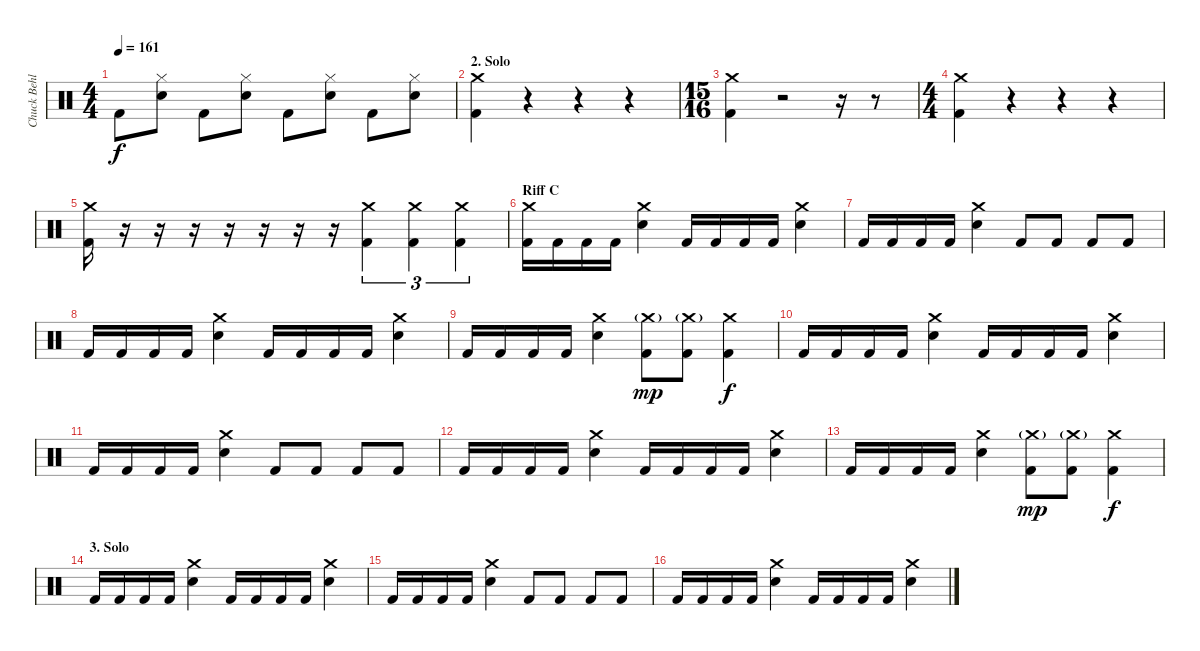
\track ("Chuck Behler" "Chuck Behl") {instrument percussion}
\staff {score}
\articulation defaults
\ts (4 4)
\tempo 161
\clef neutral
\ks c "Kick (hit) 2".8{dy f}
("Hi-Hat (closed)" "Snare (hit) 2").8 "Kick (hit) 2".8 ("Hi-Hat (closed)" "Snare (hit) 2").8 "Kick (hit) 2".8 ("Hi-Hat (closed)" "Snare (hit) 2").8 "Kick (hit) 2".8 ("Hi-Hat (closed)" "Snare (hit) 2").8 |
\section ("" "2. Solo")
("Crash medium (hit)" "Kick (hit) 2").4{volume 0} r.4 r.4 r.4{volume 16} |
\ts (15 16)
("Crash medium (hit)" "Kick (hit) 2").4{volume 0} r.2 r.16 r.8{volume 16} |
\ts (4 4)
("Crash medium (hit)" "Kick (hit) 2").4{volume 0} r.4 r.4 r.4{volume 16} |
("Crash medium (hit)" "Kick (hit) 2").16{volume 0} r.16 r.16 r.16 r.16 r.16 r.16 r.16 ("Crash medium (hit)" "Kick (hit) 2").4{tu (3 2) volume 16} ("Crash medium (hit)" "Kick (hit) 2").4{tu (3 2)} ("Crash medium (hit)" "Kick (hit) 2").4{tu (3 2)} |
\section ("" "Riff C")
("Crash medium (hit)" "Kick (hit) 2").16 "Kick (hit) 2".16 "Kick (hit) 2".16 "Kick (hit) 2".16 ("Crash medium (hit)" "Snare (hit) 2").4 "Kick (hit) 2".16 "Kick (hit) 2".16 "Kick (hit) 2".16 "Kick (hit) 2".16 ("Crash medium (hit)" "Snare (hit) 2").4 |
"Kick (hit) 2".16 "Kick (hit) 2".16 "Kick (hit) 2".16 "Kick (hit) 2".16 ("Crash medium (hit)" "Snare (hit) 2").4 "Kick (hit) 2".8 "Kick (hit) 2".8 "Kick (hit) 2".8 "Kick (hit) 2".8 |
"Kick (hit) 2".16 "Kick (hit) 2".16 "Kick (hit) 2".16 "Kick (hit) 2".16 ("Crash medium (hit)" "Snare (hit) 2").4 "Kick (hit) 2".16 "Kick (hit) 2".16 "Kick (hit) 2".16 "Kick (hit) 2".16 ("Crash medium (hit)" "Snare (hit) 2").4 |
"Kick (hit) 2".16 "Kick (hit) 2".16 "Kick (hit) 2".16 "Kick (hit) 2".16 ("Crash medium (hit)" "Snare (hit) 2").4 ("Crash medium (hit)"{g} "Kick (hit) 2").8{dy mp} ("Crash medium (hit)"{g} "Kick (hit) 2").8 ("Crash medium (hit)" "Kick (hit) 2").4{dy f} |
"Kick (hit) 2".16 "Kick (hit) 2".16 "Kick (hit) 2".16 "Kick (hit) 2".16 ("Crash medium (hit)" "Snare (hit) 2").4 "Kick (hit) 2".16 "Kick (hit) 2".16 "Kick (hit) 2".16 "Kick (hit) 2".16 ("Crash medium (hit)" "Snare (hit) 2").4 |
"Kick (hit) 2".16 "Kick (hit) 2".16 "Kick (hit) 2".16 "Kick (hit) 2".16 ("Crash medium (hit)" "Snare (hit) 2").4 "Kick (hit) 2".8 "Kick (hit) 2".8 "Kick (hit) 2".8 "Kick (hit) 2".8 |
"Kick (hit) 2".16 "Kick (hit) 2".16 "Kick (hit) 2".16 "Kick (hit) 2".16 ("Crash medium (hit)" "Snare (hit) 2").4 "Kick (hit) 2".16 "Kick (hit) 2".16 "Kick (hit) 2".16 "Kick (hit) 2".16 ("Crash medium (hit)" "Snare (hit) 2").4 |
"Kick (hit) 2".16 "Kick (hit) 2".16 "Kick (hit) 2".16 "Kick (hit) 2".16 ("Crash medium (hit)" "Snare (hit) 2").4 ("Crash medium (hit)"{g} "Kick (hit) 2").8{dy mp} ("Crash medium (hit)"{g} "Kick (hit) 2").8 ("Crash medium (hit)" "Kick (hit) 2").4{dy f} |
\section ("" "3. Solo")
"Kick (hit) 2".16 "Kick (hit) 2".16 "Kick (hit) 2".16 "Kick (hit) 2".16 ("Crash medium (hit)" "Snare (hit) 2").4 "Kick (hit) 2".16 "Kick (hit) 2".16 "Kick (hit) 2".16 "Kick (hit) 2".16 ("Crash medium (hit)" "Snare (hit) 2").4 |
"Kick (hit) 2".16 "Kick (hit) 2".16 "Kick (hit) 2".16 "Kick (hit) 2".16 ("Crash medium (hit)" "Snare (hit) 2").4 "Kick (hit) 2".8 "Kick (hit) 2".8 "Kick (hit) 2".8 "Kick (hit) 2".8 |
"Kick (hit) 2".16 "Kick (hit) 2".16 "Kick (hit) 2".16 "Kick (hit) 2".16 ("Crash medium (hit)" "Snare (hit) 2").4 "Kick (hit) 2".16 "Kick (hit) 2".16 "Kick (hit) 2".16 "Kick (hit) 2".16 ("Crash medium (hit)" "Snare (hit) 2").4
